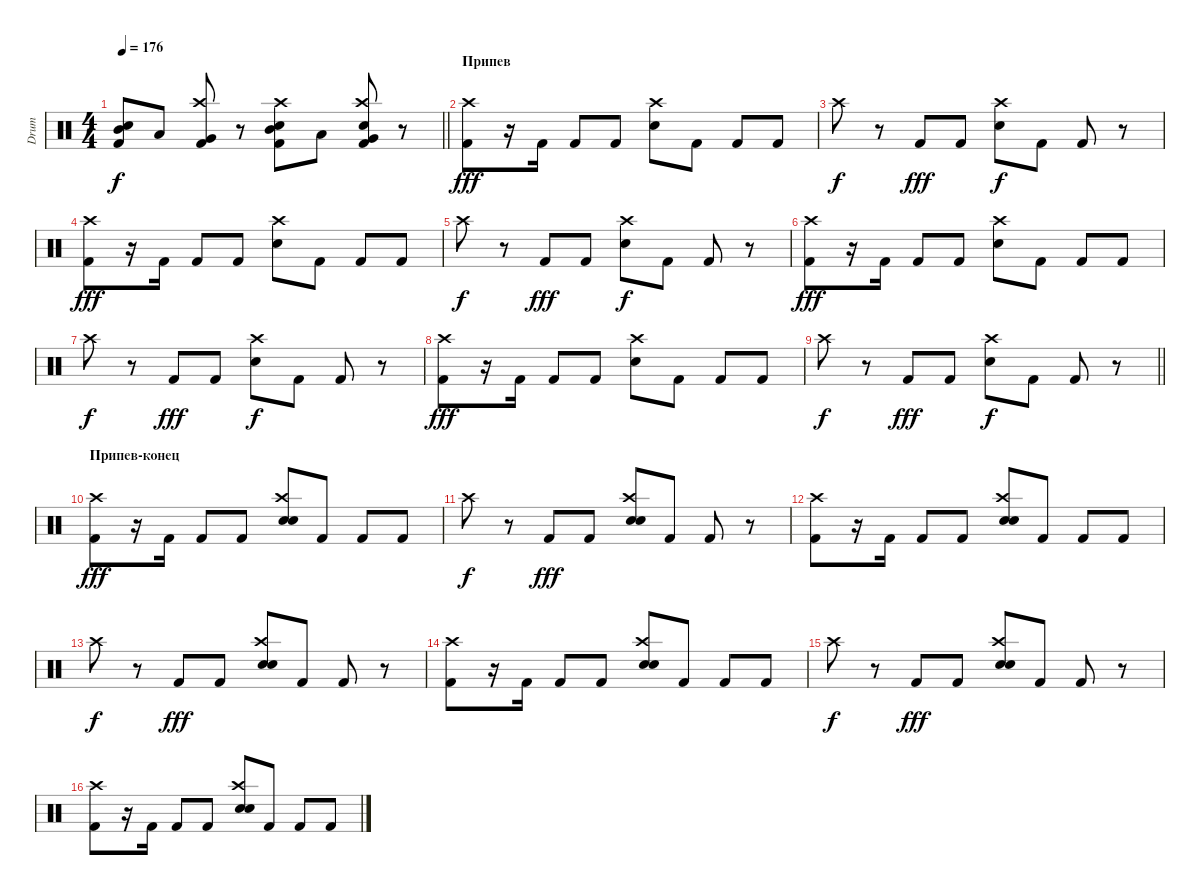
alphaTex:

\track ("Drum" "Drum") {instrument percussion}
\staff {score}
\articulation defaults
\ts (4 4)
\tempo 176
\clef neutral
\barLineRight lightlight
\ks c
("Kick (hit) 2" "Snare (hit) 2" "Mid Tom (hit)").8{dy f} "Low Tom (hit)".8 ("Crash high (hit)" "Kick (hit) 2" "Very Low Tom (hit)").8 r.8 ("Snare (hit) 2" "Crash high (hit)" "Kick (hit) 2" "Mid Tom (hit)").8 "Low Tom (hit)".8 ("Crash high (hit)" "Kick (hit) 2" "Snare (hit) 2" "Very Low Tom (hit)").8 r.8 |
\section ("" "Припев")
("Kick (hit) 2" "Crash high (hit)").8{dy fff} r.16 "Kick (hit) 2".16 "Kick (hit) 2".8 "Kick (hit) 2".8 ("Snare (hit) 2" "Crash high (hit)").8 "Kick (hit) 2".8 "Kick (hit) 2".8 "Kick (hit) 2".8 |
"Crash high (hit)".8{dy f} r.8 "Kick (hit) 2".8{dy fff} "Kick (hit) 2".8 ("Crash high (hit)" "Snare (hit) 2").8{dy f} "Kick (hit) 2".8 "Kick (hit) 2".8 r.8 |
("Kick (hit) 2" "Crash high (hit)").8{dy fff} r.16 "Kick (hit) 2".16 "Kick (hit) 2".8 "Kick (hit) 2".8 ("Snare (hit) 2" "Crash high (hit)").8 "Kick (hit) 2".8 "Kick (hit) 2".8 "Kick (hit) 2".8 |
"Crash high (hit)".8{dy f} r.8 "Kick (hit) 2".8{dy fff} "Kick (hit) 2".8 ("Crash high (hit)" "Snare (hit) 2").8{dy f} "Kick (hit) 2".8 "Kick (hit) 2".8 r.8 |
("Kick (hit) 2" "Crash high (hit)").8{dy fff} r.16 "Kick (hit) 2".16 "Kick (hit) 2".8 "Kick (hit) 2".8 ("Snare (hit) 2" "Crash high (hit)").8 "Kick (hit) 2".8 "Kick (hit) 2".8 "Kick (hit) 2".8 |
"Crash high (hit)".8{dy f} r.8 "Kick (hit) 2".8{dy fff} "Kick (hit) 2".8 ("Crash high (hit)" "Snare (hit) 2").8{dy f} "Kick (hit) 2".8 "Kick (hit) 2".8 r.8 |
("Kick (hit) 2" "Crash high (hit)").8{dy fff} r.16 "Kick (hit) 2".16 "Kick (hit) 2".8 "Kick (hit) 2".8 ("Snare (hit) 2" "Crash high (hit)").8 "Kick (hit) 2".8 "Kick (hit) 2".8 "Kick (hit) 2".8 |
\barLineRight lightlight "Crash high (hit)".8{dy f}
r.8 "Kick (hit) 2".8{dy fff} "Kick (hit) 2".8 ("Crash high (hit)" "Snare (hit) 2").8{dy f} "Kick (hit) 2".8 "Kick (hit) 2".8 r.8 |
\section ("" "Припев-конец")
("Kick (hit) 2" "Crash high (hit)").8{dy fff} r.16 "Kick (hit) 2".16 "Kick (hit) 2".8 "Kick (hit) 2".8 ("Electric Snare (hit)" "Snare (hit) 2" "Crash high (hit)").8 "Kick (hit) 2".8 "Kick (hit) 2".8 "Kick (hit) 2".8 |
"Crash high (hit)".8{dy f} r.8 "Kick (hit) 2".8{dy fff} "Kick (hit) 2".8 ("Electric Snare (hit)" "Crash high (hit)" "Snare (hit) 2").8 "Kick (hit) 2".8 "Kick (hit) 2".8 r.8 |
("Kick (hit) 2" "Crash high (hit)").8 r.16 "Kick (hit) 2".16 "Kick (hit) 2".8 "Kick (hit) 2".8 ("Electric Snare (hit)" "Snare (hit) 2" "Crash high (hit)").8 "Kick (hit) 2".8 "Kick (hit) 2".8 "Kick (hit) 2".8 |
"Crash high (hit)".8{dy f} r.8 "Kick (hit) 2".8{dy fff} "Kick (hit) 2".8 ("Electric Snare (hit)" "Crash high (hit)" "Snare (hit) 2").8 "Kick (hit) 2".8 "Kick (hit) 2".8 r.8 |
("Kick (hit) 2" "Crash high (hit)").8 r.16 "Kick (hit) 2".16 "Kick (hit) 2".8 "Kick (hit) 2".8 ("Electric Snare (hit)" "Snare (hit) 2" "Crash high (hit)").8 "Kick (hit) 2".8 "Kick (hit) 2".8 "Kick (hit) 2".8 |
"Crash high (hit)".8{dy f} r.8 "Kick (hit) 2".8{dy fff} "Kick (hit) 2".8 ("Electric Snare (hit)" "Crash high (hit)" "Snare (hit) 2").8 "Kick (hit) 2".8 "Kick (hit) 2".8 r.8 |
("Kick (hit) 2" "Crash high (hit)").8 r.16 "Kick (hit) 2".16 "Kick (hit) 2".8 "Kick (hit) 2".8 ("Electric Snare (hit)" "Snare (hit) 2" "Crash high (hit)").8 "Kick (hit) 2".8 "Kick (hit) 2".8 "Kick (hit) 2".8
